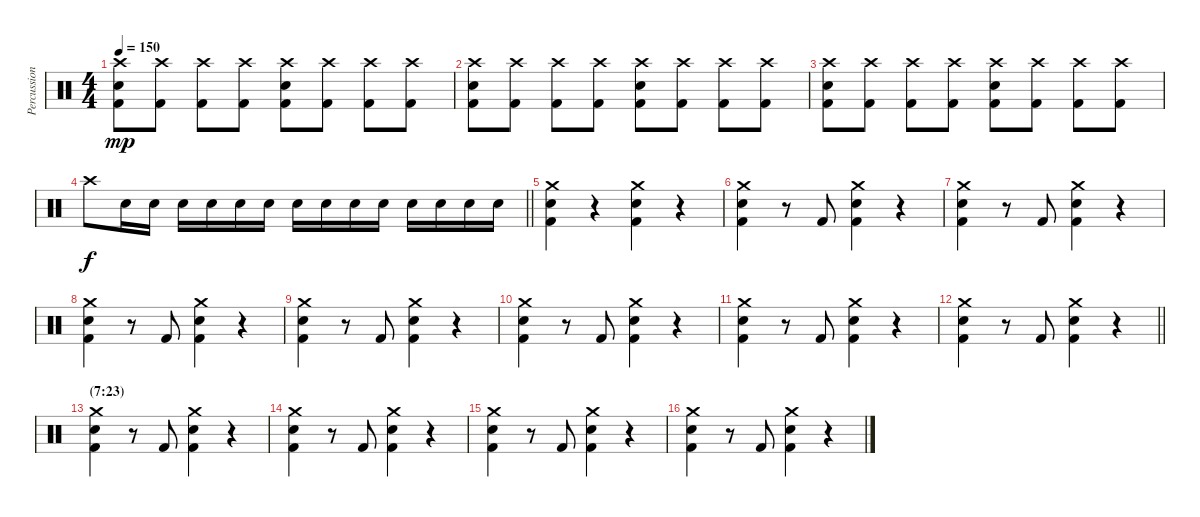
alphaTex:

\track ("Percussion" "Percussion") {instrument percussion}
\staff {score}
\articulation defaults
\ts (4 4)
\tempo 150
\clef neutral
\ks c
("Crash high (hit)" "Electric Snare (hit)" "Kick (hit) 2").8{dy mp} ("Crash high (hit)" "Kick (hit) 2").8 ("Crash high (hit)" "Kick (hit) 2").8 ("Crash high (hit)" "Kick (hit) 2").8 ("Crash high (hit)" "Electric Snare (hit)" "Kick (hit) 2").8 ("Crash high (hit)" "Kick (hit) 2").8 ("Crash high (hit)" "Kick (hit) 2").8 ("Crash high (hit)" "Kick (hit) 2").8 |
("Crash high (hit)" "Electric Snare (hit)" "Kick (hit) 2").8 ("Crash high (hit)" "Kick (hit) 2").8 ("Crash high (hit)" "Kick (hit) 2").8 ("Crash high (hit)" "Kick (hit) 2").8 ("Crash high (hit)" "Electric Snare (hit)" "Kick (hit) 2").8 ("Crash high (hit)" "Kick (hit) 2").8 ("Crash high (hit)" "Kick (hit) 2").8 ("Crash high (hit)" "Kick (hit) 2").8 |
("Crash high (hit)" "Electric Snare (hit)" "Kick (hit) 2").8 ("Crash high (hit)" "Kick (hit) 2").8 ("Crash high (hit)" "Kick (hit) 2").8 ("Crash high (hit)" "Kick (hit) 2").8 ("Crash high (hit)" "Electric Snare (hit)" "Kick (hit) 2").8 ("Crash high (hit)" "Kick (hit) 2").8 ("Crash high (hit)" "Kick (hit) 2").8 ("Crash high (hit)" "Kick (hit) 2").8 |
\barLineRight lightlight "Crash high (hit)".8{dy f} "Electric Snare (hit)".16 "Electric Snare (hit)".16 "Electric Snare (hit)".16 "Electric Snare (hit)".16 "Electric Snare (hit)".16 "Electric Snare (hit)".16 "Electric Snare (hit)".16 "Electric Snare (hit)".16 "Snare (hit) 2".16 "Snare (hit) 2".16 "Electric Snare (hit)".16 "Electric Snare (hit)".16 "Snare (hit) 2".16 "Snare (hit) 2".16
|
("Crash medium (hit)" "Electric Snare (hit)" "Kick (hit) 2").4 r.4 ("Crash medium (hit)" "Electric Snare (hit)" "Kick (hit) 2").4 r.4 |
("Crash medium (hit)" "Electric Snare (hit)" "Kick (hit) 2").4 r.8 "Kick (hit) 2".8 ("Crash medium (hit)" "Electric Snare (hit)" "Kick (hit) 2").4 r.4 |
("Crash medium (hit)" "Electric Snare (hit)" "Kick (hit) 2").4 r.8 "Kick (hit) 2".8 ("Crash medium (hit)" "Electric Snare (hit)" "Kick (hit) 2").4 r.4 |
("Crash medium (hit)" "Electric Snare (hit)" "Kick (hit) 2").4 r.8 "Kick (hit) 2".8 ("Crash medium (hit)" "Electric Snare (hit)" "Kick (hit) 2").4 r.4 |
("Crash medium (hit)" "Electric Snare (hit)" "Kick (hit) 2").4 r.8 "Kick (hit) 2".8 ("Crash medium (hit)" "Electric Snare (hit)" "Kick (hit) 2").4 r.4 |
("Crash medium (hit)" "Electric Snare (hit)" "Kick (hit) 2").4 r.8 "Kick (hit) 2".8 ("Crash medium (hit)" "Electric Snare (hit)" "Kick (hit) 2").4 r.4 |
("Crash medium (hit)" "Electric Snare (hit)" "Kick (hit) 2").4 r.8 "Kick (hit) 2".8 ("Crash medium (hit)" "Electric Snare (hit)" "Kick (hit) 2").4 r.4 |
\barLineRight lightlight
("Crash medium (hit)" "Electric Snare (hit)" "Kick (hit) 2").4 r.8 "Kick (hit) 2".8 ("Crash medium (hit)" "Electric Snare (hit)" "Kick (hit) 2").4 r.4 |
\section ("" "(7:23)")
("Crash medium (hit)" "Electric Snare (hit)" "Kick (hit) 2").4 r.8 "Kick (hit) 2".8 ("Crash medium (hit)" "Electric Snare (hit)" "Kick (hit) 2").4 r.4 |
("Crash medium (hit)" "Electric Snare (hit)" "Kick (hit) 2").4 r.8 "Kick (hit) 2".8 ("Crash medium (hit)" "Electric Snare (hit)" "Kick (hit) 2").4 r.4 |
("Crash medium (hit)" "Electric Snare (hit)" "Kick (hit) 2").4 r.8 "Kick (hit) 2".8 ("Crash medium (hit)" "Electric Snare (hit)" "Kick (hit) 2").4 r.4 |
("Crash medium (hit)" "Electric Snare (hit)" "Kick (hit) 2").4 r.8 "Kick (hit) 2".8 ("Crash medium (hit)" "Electric Snare (hit)" "Kick (hit) 2").4 r.4
